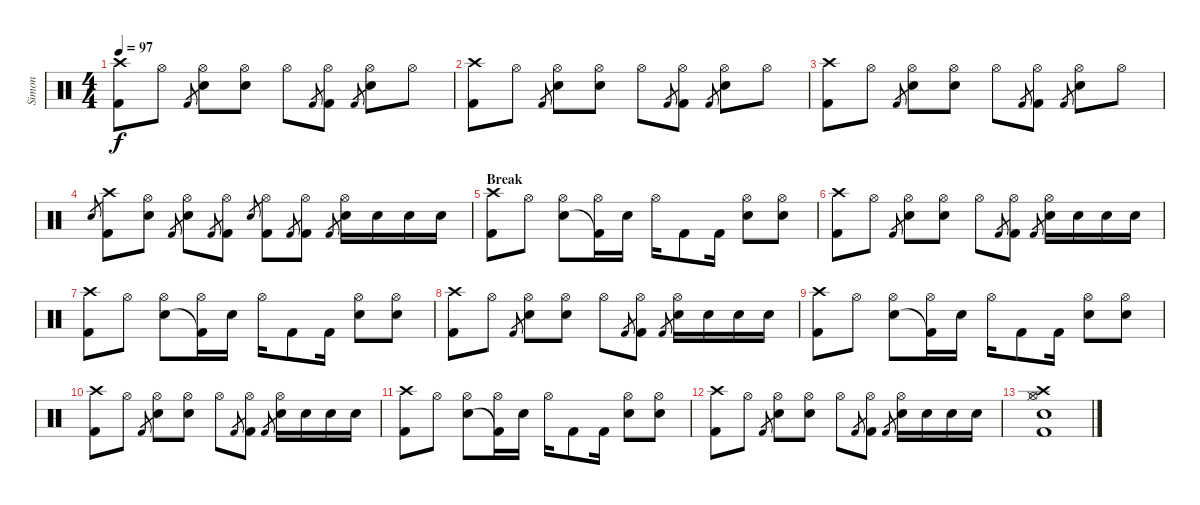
\track ("Simon" "Simon") {instrument percussion}
\staff {score}
\articulation defaults
\ts (4 4)
\tempo 97
\clef neutral
\ks c
("Crash high (hit)" "Kick (hit) 2").8{dy f} "Hi-Hat (open)".8 "Kick (hit) 2".8{gr} ("Hi-Hat (open)" "Electric Snare (hit)").8 ("Hi-Hat (open)" "Electric Snare (hit)").8 "Hi-Hat (open)".8 "Kick (hit) 2".8{gr} ("Hi-Hat (open)" "Kick (hit) 2").8 "Kick (hit) 2".8{gr} ("Hi-Hat (open)" "Electric Snare (hit)").8 "Hi-Hat (open)".8 |
("Crash high (hit)" "Kick (hit) 2").8 "Hi-Hat (open)".8 "Kick (hit) 2".8{gr} ("Hi-Hat (open)" "Electric Snare (hit)").8 ("Hi-Hat (open)" "Electric Snare (hit)").8 "Hi-Hat (open)".8 "Kick (hit) 2".8{gr} ("Hi-Hat (open)" "Kick (hit) 2").8 "Kick (hit) 2".8{gr} ("Hi-Hat (open)" "Electric Snare (hit)").8 "Hi-Hat (open)".8 |
("Crash high (hit)" "Kick (hit) 2").8 "Hi-Hat (open)".8 "Kick (hit) 2".8{gr} ("Hi-Hat (open)" "Electric Snare (hit)").8 ("Hi-Hat (open)" "Electric Snare (hit)").8 "Hi-Hat (open)".8 "Kick (hit) 2".8{gr} ("Hi-Hat (open)" "Kick (hit) 2").8 "Kick (hit) 2".8{gr} ("Hi-Hat (open)" "Electric Snare (hit)").8 "Hi-Hat (open)".8 |
"Electric Snare (hit)".8{gr} ("Crash high (hit)" "Kick (hit) 2").8 ("Hi-Hat (open)" "Electric Snare (hit)").8 "Kick (hit) 2".8{gr} ("Hi-Hat (open)" "Electric Snare (hit)").8 "Kick (hit) 2".8{gr} ("Hi-Hat (open)" "Kick (hit) 2").8 "Electric Snare (hit)".8{gr} ("Hi-Hat (open)" "Kick (hit) 2").8 "Kick (hit) 2".8{gr} ("Hi-Hat (open)" "Kick (hit) 2").8 "Kick (hit) 2".8{gr} ("Hi-Hat (open)" "Electric Snare (hit)").16 "Electric Snare (hit)".16 "Electric Snare (hit)".16 "Electric Snare (hit)".16 |
\section ("" "Break")
("Crash high (hit)" "Kick (hit) 2").8 "Hi-Hat (open)".8 ("Hi-Hat (open)" "Electric Snare (hit)").8 ("Hi-Hat (open)" "Kick (hit) 2"{t}).16 "Electric Snare (hit)".16 "Hi-Hat (open)".16 "Kick (hit) 2".8 "Kick (hit) 2".16 ("Hi-Hat (open)" "Electric Snare (hit)").8 ("Hi-Hat (open)" "Electric Snare (hit)").8 |
("Crash high (hit)" "Kick (hit) 2").8 "Hi-Hat (open)".8 "Kick (hit) 2".8{gr} ("Hi-Hat (open)" "Electric Snare (hit)").8 ("Hi-Hat (open)" "Electric Snare (hit)").8 "Hi-Hat (open)".8 "Kick (hit) 2".8{gr} ("Hi-Hat (open)" "Kick (hit) 2").8 "Kick (hit) 2".8{gr} ("Hi-Hat (open)" "Electric Snare (hit)").16 "Electric Snare (hit)".16 "Electric Snare (hit)".16 "Electric Snare (hit)".16 |
("Crash high (hit)" "Kick (hit) 2").8 "Hi-Hat (open)".8 ("Hi-Hat (open)" "Electric Snare (hit)").8 ("Hi-Hat (open)" "Kick (hit) 2"{t}).16 "Electric Snare (hit)".16 "Hi-Hat (open)".16 "Kick (hit) 2".8 "Kick (hit) 2".16 ("Hi-Hat (open)" "Electric Snare (hit)").8 ("Hi-Hat (open)" "Electric Snare (hit)").8 |
("Crash high (hit)" "Kick (hit) 2").8 "Hi-Hat (open)".8 "Kick (hit) 2".8{gr} ("Hi-Hat (open)" "Electric Snare (hit)").8 ("Hi-Hat (open)" "Electric Snare (hit)").8 "Hi-Hat (open)".8 "Kick (hit) 2".8{gr} ("Hi-Hat (open)" "Kick (hit) 2").8 "Kick (hit) 2".8{gr} ("Hi-Hat (open)" "Electric Snare (hit)").16 "Electric Snare (hit)".16 "Electric Snare (hit)".16 "Electric Snare (hit)".16 |
("Crash high (hit)" "Kick (hit) 2").8 "Hi-Hat (open)".8 ("Hi-Hat (open)" "Electric Snare (hit)").8 ("Hi-Hat (open)" "Kick (hit) 2"{t}).16 "Electric Snare (hit)".16 "Hi-Hat (open)".16 "Kick (hit) 2".8 "Kick (hit) 2".16 ("Hi-Hat (open)" "Electric Snare (hit)").8 ("Hi-Hat (open)" "Electric Snare (hit)").8 |
("Crash high (hit)" "Kick (hit) 2").8 "Hi-Hat (open)".8 "Kick (hit) 2".8{gr} ("Hi-Hat (open)" "Electric Snare (hit)").8 ("Hi-Hat (open)" "Electric Snare (hit)").8 "Hi-Hat (open)".8 "Kick (hit) 2".8{gr} ("Hi-Hat (open)" "Kick (hit) 2").8 "Kick (hit) 2".8{gr} ("Hi-Hat (open)" "Electric Snare (hit)").16 "Electric Snare (hit)".16 "Electric Snare (hit)".16 "Electric Snare (hit)".16 |
("Crash high (hit)" "Kick (hit) 2").8 "Hi-Hat (open)".8 ("Hi-Hat (open)" "Electric Snare (hit)").8 ("Hi-Hat (open)" "Kick (hit) 2"{t}).16 "Electric Snare (hit)".16 "Hi-Hat (open)".16 "Kick (hit) 2".8 "Kick (hit) 2".16 ("Hi-Hat (open)" "Electric Snare (hit)").8 ("Hi-Hat (open)" "Electric Snare (hit)").8 |
("Crash high (hit)" "Kick (hit) 2").8 "Hi-Hat (open)".8 "Kick (hit) 2".8{gr} ("Hi-Hat (open)" "Electric Snare (hit)").8 ("Hi-Hat (open)" "Electric Snare (hit)").8 "Hi-Hat (open)".8 "Kick (hit) 2".8{gr} ("Hi-Hat (open)" "Kick (hit) 2").8 "Kick (hit) 2".8{gr} ("Hi-Hat (open)" "Electric Snare (hit)").16 "Electric Snare (hit)".16 "Electric Snare (hit)".16 "Electric Snare (hit)".16 |
("Crash high (hit)" "Hi-Hat (open)" "Hi-Hat (closed)" "Electric Snare (hit)" "Kick (hit) 2").1
